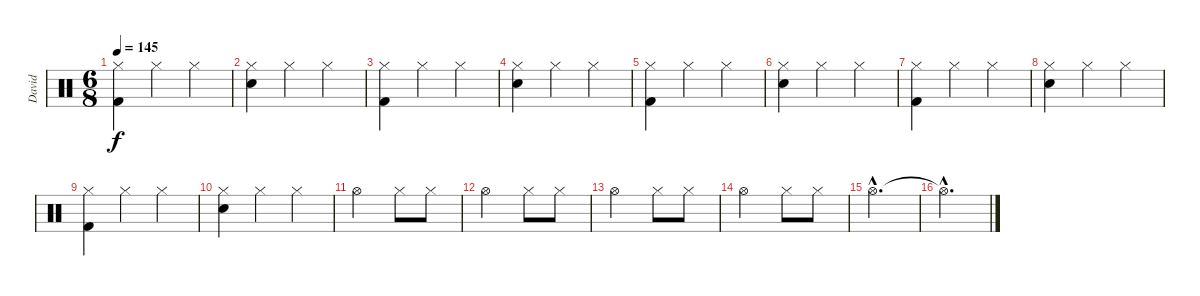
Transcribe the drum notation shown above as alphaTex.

\track ("David" "David") {instrument percussion}
\staff {score}
\articulation defaults
\ts (6 8)
\tempo 145
\clef neutral
\ks c
("Hi-Hat (closed)" "Kick (hit) 2").4{dy f} "Hi-Hat (closed)".4 "Hi-Hat (closed)".4 |
("Hi-Hat (closed)" "Electric Snare (hit)").4 "Hi-Hat (closed)".4 "Hi-Hat (closed)".4 |
("Hi-Hat (closed)" "Kick (hit) 2").4 "Hi-Hat (closed)".4 "Hi-Hat (closed)".4 |
("Hi-Hat (closed)" "Electric Snare (hit)").4 "Hi-Hat (closed)".4 "Hi-Hat (closed)".4 |
("Hi-Hat (closed)" "Kick (hit) 2").4 "Hi-Hat (closed)".4 "Hi-Hat (closed)".4 |
("Hi-Hat (closed)" "Electric Snare (hit)").4 "Hi-Hat (closed)".4 "Hi-Hat (closed)".4 |
("Hi-Hat (closed)" "Kick (hit) 2").4 "Hi-Hat (closed)".4 "Hi-Hat (closed)".4 |
("Hi-Hat (closed)" "Electric Snare (hit)").4 "Hi-Hat (closed)".4 "Hi-Hat (closed)".4 |
("Hi-Hat (closed)" "Kick (hit) 2").4 "Hi-Hat (closed)".4 "Hi-Hat (closed)".4 |
("Hi-Hat (closed)" "Electric Snare (hit)").4 "Hi-Hat (closed)".4 "Hi-Hat (closed)".4 |
"Hi-Hat (open)".2{volume 10} "Hi-Hat (closed)".8 "Hi-Hat (closed)".8 |
"Hi-Hat (open)".2 "Hi-Hat (closed)".8 "Hi-Hat (closed)".8 |
"Hi-Hat (open)".2 "Hi-Hat (closed)".8 "Hi-Hat (closed)".8 |
"Hi-Hat (open)".2 "Hi-Hat (closed)".8 "Hi-Hat (closed)".8 |
"Hi-Hat (open)"{hac}.2{d} |
"Hi-Hat (open)"{hac t}.2{d}
